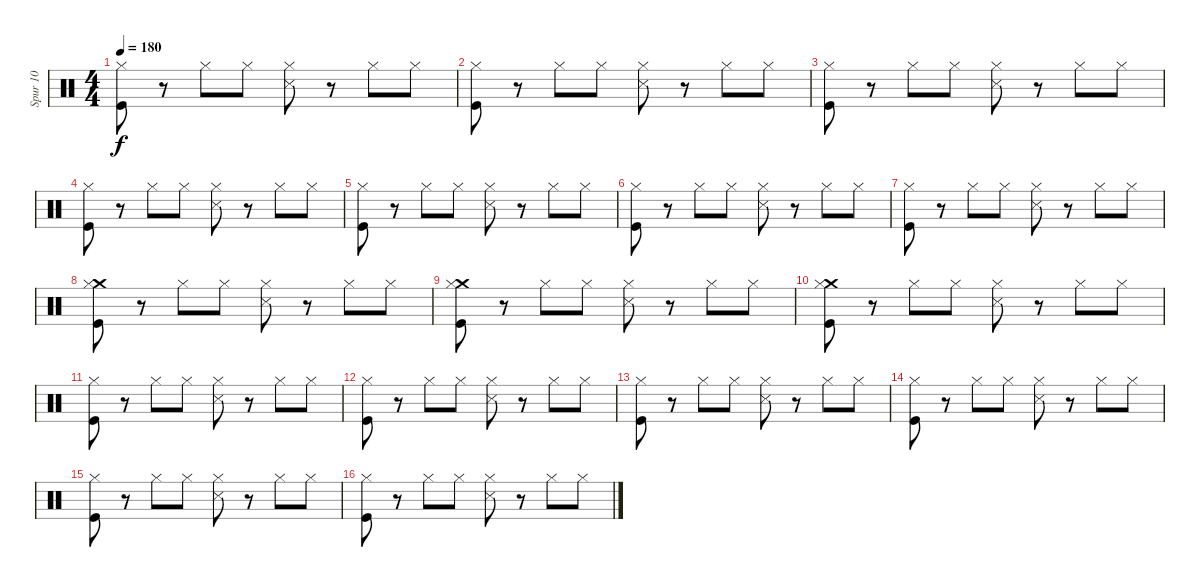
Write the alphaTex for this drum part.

\track ("Spur 10" "Spur 10") {instrument percussion}
\staff {score}
\articulation defaults
\ts (4 4)
\tempo 180
\clef neutral
\ks c
("Hi-Hat (closed)" "Kick (hit)").8{dy f} r.8 "Hi-Hat (closed)".8 "Hi-Hat (closed)".8 ("Hi-Hat (closed)" "Snare (side stick) 3").8 r.8 "Hi-Hat (closed)".8 "Hi-Hat (closed)".8 |
("Hi-Hat (closed)" "Kick (hit)").8 r.8 "Hi-Hat (closed)".8 "Hi-Hat (closed)".8 ("Hi-Hat (closed)" "Snare (side stick) 3").8 r.8 "Hi-Hat (closed)".8 "Hi-Hat (closed)".8 |
("Hi-Hat (closed)" "Kick (hit)").8 r.8 "Hi-Hat (closed)".8 "Hi-Hat (closed)".8 ("Hi-Hat (closed)" "Snare (side stick) 3").8 r.8 "Hi-Hat (closed)".8 "Hi-Hat (closed)".8 |
("Hi-Hat (closed)" "Kick (hit)").8 r.8 "Hi-Hat (closed)".8 "Hi-Hat (closed)".8 ("Hi-Hat (closed)" "Snare (side stick) 3").8 r.8 "Hi-Hat (closed)".8 "Hi-Hat (closed)".8 |
("Hi-Hat (closed)" "Kick (hit)").8 r.8 "Hi-Hat (closed)".8 "Hi-Hat (closed)".8 ("Hi-Hat (closed)" "Snare (side stick) 3").8 r.8 "Hi-Hat (closed)".8 "Hi-Hat (closed)".8 |
("Hi-Hat (closed)" "Kick (hit)").8 r.8 "Hi-Hat (closed)".8 "Hi-Hat (closed)".8 ("Hi-Hat (closed)" "Snare (side stick) 3").8 r.8 "Hi-Hat (closed)".8 "Hi-Hat (closed)".8 |
("Hi-Hat (closed)" "Kick (hit)").8 r.8 "Hi-Hat (closed)".8 "Hi-Hat (closed)".8 ("Hi-Hat (closed)" "Snare (side stick) 3").8 r.8 "Hi-Hat (closed)".8 "Hi-Hat (closed)".8 |
("Crash medium (hit)" "Hi-Hat (closed)" "Kick (hit)").8 r.8 "Hi-Hat (closed)".8 "Hi-Hat (closed)".8 ("Hi-Hat (closed)" "Snare (side stick) 3").8 r.8 "Hi-Hat (closed)".8 "Hi-Hat (closed)".8 |
("Crash medium (hit)" "Hi-Hat (closed)" "Kick (hit)").8 r.8 "Hi-Hat (closed)".8 "Hi-Hat (closed)".8 ("Hi-Hat (closed)" "Snare (side stick) 3").8 r.8 "Hi-Hat (closed)".8 "Hi-Hat (closed)".8 |
("Crash medium (hit)" "Hi-Hat (closed)" "Kick (hit)").8 r.8 "Hi-Hat (closed)".8 "Hi-Hat (closed)".8 ("Hi-Hat (closed)" "Snare (side stick) 3").8 r.8 "Hi-Hat (closed)".8 "Hi-Hat (closed)".8 |
("Hi-Hat (closed)" "Kick (hit)").8 r.8 "Hi-Hat (closed)".8 "Hi-Hat (closed)".8 ("Hi-Hat (closed)" "Snare (side stick) 3").8 r.8 "Hi-Hat (closed)".8 "Hi-Hat (closed)".8 |
("Hi-Hat (closed)" "Kick (hit)").8 r.8 "Hi-Hat (closed)".8 "Hi-Hat (closed)".8 ("Hi-Hat (closed)" "Snare (side stick) 3").8 r.8 "Hi-Hat (closed)".8 "Hi-Hat (closed)".8 |
("Hi-Hat (closed)" "Kick (hit)").8 r.8 "Hi-Hat (closed)".8 "Hi-Hat (closed)".8 ("Hi-Hat (closed)" "Snare (side stick) 3").8 r.8 "Hi-Hat (closed)".8 "Hi-Hat (closed)".8 |
("Hi-Hat (closed)" "Kick (hit)").8 r.8 "Hi-Hat (closed)".8 "Hi-Hat (closed)".8 ("Hi-Hat (closed)" "Snare (side stick) 3").8 r.8 "Hi-Hat (closed)".8 "Hi-Hat (closed)".8 |
("Hi-Hat (closed)" "Kick (hit)").8 r.8 "Hi-Hat (closed)".8 "Hi-Hat (closed)".8 ("Hi-Hat (closed)" "Snare (side stick) 3").8 r.8 "Hi-Hat (closed)".8 "Hi-Hat (closed)".8 |
("Hi-Hat (closed)" "Kick (hit)").8 r.8 "Hi-Hat (closed)".8 "Hi-Hat (closed)".8 ("Hi-Hat (closed)" "Snare (side stick) 3").8 r.8 "Hi-Hat (closed)".8 "Hi-Hat (closed)".8
